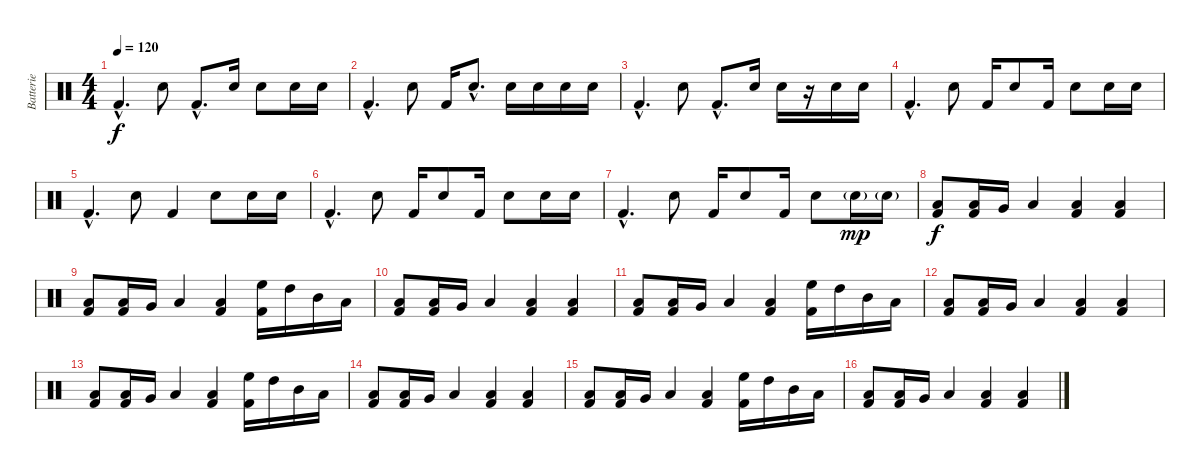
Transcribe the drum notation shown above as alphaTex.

\track ("Batterie" "Batterie") {instrument percussion}
\staff {score}
\articulation defaults
\ts (4 4)
\tempo 120
\clef neutral
\ks c "Kick (hit) 2"{hac}.4{d dy f} "Electric Snare (hit)".8 "Kick (hit) 2"{hac}.8{d} "Electric Snare (hit)".16 "Electric Snare (hit)".8 "Electric Snare (hit)".16 "Electric Snare (hit)".16
|
"Kick (hit) 2"{hac}.4{d} "Electric Snare (hit)".8 "Kick (hit) 2".16 "Electric Snare (hit)"{hac}.8{d} "Electric Snare (hit)".16 "Electric Snare (hit)".16 "Electric Snare (hit)".16 "Electric Snare (hit)".16 |
"Kick (hit) 2"{hac}.4{d} "Electric Snare (hit)".8 "Kick (hit) 2"{hac}.8{d} "Electric Snare (hit)".16 "Electric Snare (hit)".16 r.16 "Electric Snare (hit)".16 "Electric Snare (hit)".16 |
"Kick (hit) 2"{hac}.4{d} "Electric Snare (hit)".8 "Kick (hit) 2".16 "Electric Snare (hit)".8 "Kick (hit) 2".16 "Electric Snare (hit)".8 "Electric Snare (hit)".16 "Electric Snare (hit)".16 |
"Kick (hit) 2"{hac}.4{d} "Electric Snare (hit)".8 "Kick (hit) 2".4 "Electric Snare (hit)".8 "Electric Snare (hit)".16 "Electric Snare (hit)".16 |
"Kick (hit) 2"{hac}.4{d} "Electric Snare (hit)".8 "Kick (hit) 2".16 "Electric Snare (hit)".8 "Kick (hit) 2".16 "Electric Snare (hit)".8 "Electric Snare (hit)".16 "Electric Snare (hit)".16 |
"Kick (hit) 2"{hac}.4{d} "Electric Snare (hit)".8 "Kick (hit) 2".16 "Electric Snare (hit)".8 "Kick (hit) 2".16 "Electric Snare (hit)".8 "Electric Snare (hit)"{g}.16{dy mp} "Electric Snare (hit)"{g}.16 |
("Low Floor Tom (hit)" "Kick (hit) 2").8{dy f} ("Low Floor Tom (hit)" "Kick (hit) 2").16 "Very Low Tom (hit)".16 "Low Floor Tom (hit)".4 ("Low Floor Tom (hit)" "Kick (hit) 2").4 ("Low Floor Tom (hit)" "Kick (hit) 2").4 |
("Low Floor Tom (hit)" "Kick (hit) 2").8 ("Low Floor Tom (hit)" "Kick (hit) 2").16 "Very Low Tom (hit)".16 "Low Floor Tom (hit)".4 ("Low Floor Tom (hit)" "Kick (hit) 2").4 ("High Floor Tom (hit)" "Kick (hit) 2").16 "High Tom (hit)".16 "Mid Tom (hit)".16 "Low Tom (hit)".16 |
("Low Floor Tom (hit)" "Kick (hit) 2").8 ("Low Floor Tom (hit)" "Kick (hit) 2").16 "Very Low Tom (hit)".16 "Low Floor Tom (hit)".4 ("Low Floor Tom (hit)" "Kick (hit) 2").4 ("Low Floor Tom (hit)" "Kick (hit) 2").4 |
("Low Floor Tom (hit)" "Kick (hit) 2").8 ("Low Floor Tom (hit)" "Kick (hit) 2").16 "Very Low Tom (hit)".16 "Low Floor Tom (hit)".4 ("Low Floor Tom (hit)" "Kick (hit) 2").4 ("High Floor Tom (hit)" "Kick (hit) 2").16 "High Tom (hit)".16 "Mid Tom (hit)".16 "Low Tom (hit)".16 |
("Low Floor Tom (hit)" "Kick (hit) 2").8 ("Low Floor Tom (hit)" "Kick (hit) 2").16 "Very Low Tom (hit)".16 "Low Floor Tom (hit)".4 ("Low Floor Tom (hit)" "Kick (hit) 2").4 ("Low Floor Tom (hit)" "Kick (hit) 2").4 |
("Low Floor Tom (hit)" "Kick (hit) 2").8 ("Low Floor Tom (hit)" "Kick (hit) 2").16 "Very Low Tom (hit)".16 "Low Floor Tom (hit)".4 ("Low Floor Tom (hit)" "Kick (hit) 2").4 ("High Floor Tom (hit)" "Kick (hit) 2").16 "High Tom (hit)".16 "Mid Tom (hit)".16 "Low Tom (hit)".16 |
("Low Floor Tom (hit)" "Kick (hit) 2").8 ("Low Floor Tom (hit)" "Kick (hit) 2").16 "Very Low Tom (hit)".16 "Low Floor Tom (hit)".4 ("Low Floor Tom (hit)" "Kick (hit) 2").4 ("Low Floor Tom (hit)" "Kick (hit) 2").4 |
("Low Floor Tom (hit)" "Kick (hit) 2").8 ("Low Floor Tom (hit)" "Kick (hit) 2").16 "Very Low Tom (hit)".16 "Low Floor Tom (hit)".4 ("Low Floor Tom (hit)" "Kick (hit) 2").4 ("High Floor Tom (hit)" "Kick (hit) 2").16 "High Tom (hit)".16 "Mid Tom (hit)".16 "Low Tom (hit)".16 |
("Low Floor Tom (hit)" "Kick (hit) 2").8 ("Low Floor Tom (hit)" "Kick (hit) 2").16 "Very Low Tom (hit)".16 "Low Floor Tom (hit)".4 ("Low Floor Tom (hit)" "Kick (hit) 2").4 ("Low Floor Tom (hit)" "Kick (hit) 2").4
